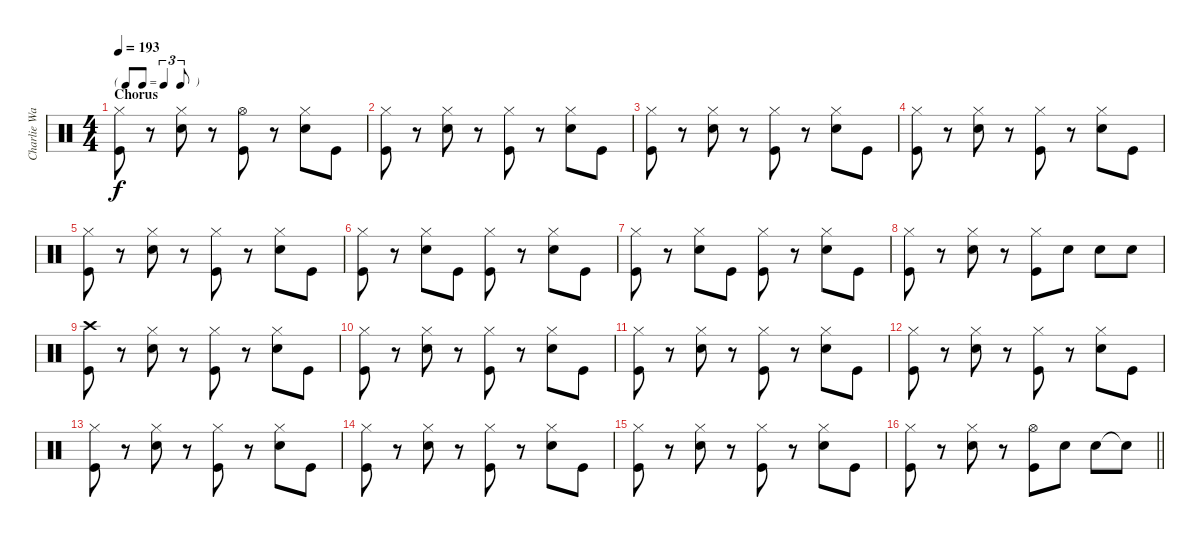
\track ("Charlie Watts" "Charlie Wa") {instrument percussion}
\staff {score}
\articulation defaults
\ts (4 4)
\tf triplet8th
\section ("" "Chorus")
\tempo 193
\clef neutral
\ks c
("Hi-Hat (closed)" "Kick (hit)").8{dy f} r.8 ("Hi-Hat (closed)" "Snare (hit) 2").8 r.8 ("Hi-Hat (open)" "Kick (hit)").8 r.8 ("Hi-Hat (closed)" "Snare (hit) 2").8 "Kick (hit)".8 |
("Hi-Hat (closed)" "Kick (hit)").8 r.8 ("Hi-Hat (closed)" "Snare (hit) 2").8 r.8 ("Hi-Hat (closed)" "Kick (hit)").8 r.8 ("Hi-Hat (closed)" "Snare (hit) 2").8 "Kick (hit)".8 |
("Hi-Hat (closed)" "Kick (hit)").8 r.8 ("Hi-Hat (closed)" "Snare (hit) 2").8 r.8 ("Hi-Hat (closed)" "Kick (hit)").8 r.8 ("Hi-Hat (closed)" "Snare (hit) 2").8 "Kick (hit)".8 |
("Hi-Hat (closed)" "Kick (hit)").8 r.8 ("Hi-Hat (closed)" "Snare (hit) 2").8 r.8 ("Hi-Hat (closed)" "Kick (hit)").8 r.8 ("Hi-Hat (closed)" "Snare (hit) 2").8 "Kick (hit)".8 |
("Hi-Hat (closed)" "Kick (hit)").8 r.8 ("Hi-Hat (closed)" "Snare (hit) 2").8 r.8 ("Hi-Hat (closed)" "Kick (hit)").8 r.8 ("Hi-Hat (closed)" "Snare (hit) 2").8 "Kick (hit)".8 |
("Hi-Hat (closed)" "Kick (hit)").8 r.8 ("Hi-Hat (closed)" "Snare (hit) 2").8 "Kick (hit)".8 ("Hi-Hat (closed)" "Kick (hit)").8 r.8 ("Hi-Hat (closed)" "Snare (hit) 2").8 "Kick (hit)".8 |
("Hi-Hat (closed)" "Kick (hit)").8 r.8 ("Hi-Hat (closed)" "Snare (hit) 2").8 "Kick (hit)".8 ("Hi-Hat (closed)" "Kick (hit)").8 r.8 ("Hi-Hat (closed)" "Snare (hit) 2").8 "Kick (hit)".8 |
("Hi-Hat (closed)" "Kick (hit)").8 r.8 ("Hi-Hat (closed)" "Snare (hit) 2").8 r.8 ("Hi-Hat (closed)" "Kick (hit)").8 "Snare (hit) 2".8 "Snare (hit) 2".8 "Snare (hit) 2".8 |
("Crash high (hit)" "Kick (hit)").8 r.8 ("Hi-Hat (closed)" "Snare (hit) 2").8 r.8 ("Hi-Hat (closed)" "Kick (hit)").8 r.8 ("Hi-Hat (closed)" "Snare (hit) 2").8 "Kick (hit)".8 |
("Hi-Hat (closed)" "Kick (hit)").8 r.8 ("Hi-Hat (closed)" "Snare (hit) 2").8 r.8 ("Hi-Hat (closed)" "Kick (hit)").8 r.8 ("Hi-Hat (closed)" "Snare (hit) 2").8 "Kick (hit)".8 |
("Hi-Hat (closed)" "Kick (hit)").8 r.8 ("Hi-Hat (closed)" "Snare (hit) 2").8 r.8 ("Hi-Hat (closed)" "Kick (hit)").8 r.8 ("Hi-Hat (closed)" "Snare (hit) 2").8 "Kick (hit)".8 |
("Hi-Hat (closed)" "Kick (hit)").8 r.8 ("Hi-Hat (closed)" "Snare (hit) 2").8 r.8 ("Hi-Hat (closed)" "Kick (hit)").8 r.8 ("Hi-Hat (closed)" "Snare (hit) 2").8 "Kick (hit)".8 |
("Hi-Hat (closed)" "Kick (hit)").8 r.8 ("Hi-Hat (closed)" "Snare (hit) 2").8 r.8 ("Hi-Hat (closed)" "Kick (hit)").8 r.8 ("Hi-Hat (closed)" "Snare (hit) 2").8 "Kick (hit)".8 |
("Hi-Hat (closed)" "Kick (hit)").8 r.8 ("Hi-Hat (closed)" "Snare (hit) 2").8 r.8 ("Hi-Hat (closed)" "Kick (hit)").8 r.8 ("Hi-Hat (closed)" "Snare (hit) 2").8 "Kick (hit)".8 |
("Hi-Hat (closed)" "Kick (hit)").8 r.8 ("Hi-Hat (closed)" "Snare (hit) 2").8 r.8 ("Hi-Hat (closed)" "Kick (hit)").8 r.8 ("Hi-Hat (closed)" "Snare (hit) 2").8 "Kick (hit)".8 |
\barLineRight lightlight
("Hi-Hat (closed)" "Kick (hit)").8 r.8 ("Hi-Hat (closed)" "Snare (hit) 2").8 r.8 ("Hi-Hat (open)" "Kick (hit)").8 "Snare (hit) 2".8 "Snare (hit) 2".8 "Snare (hit) 2"{t}.8
